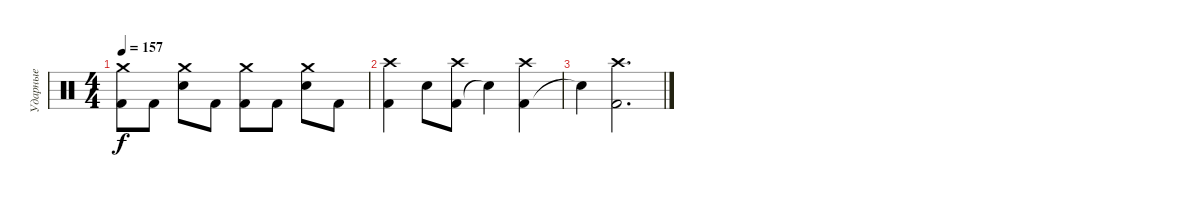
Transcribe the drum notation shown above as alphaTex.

\track ("Ударные" "Ударные") {instrument percussion}
\staff {score}
\articulation defaults
\ts (4 4)
\tempo 157
\clef neutral
\ks c
("Kick (hit) 2" "Crash medium (hit)").8{dy f} "Kick (hit) 2".8 ("Snare (hit) 2" "Crash medium (hit)").8 "Kick (hit) 2".8 ("Kick (hit) 2" "Crash medium (hit)").8 "Kick (hit) 2".8 ("Snare (hit) 2" "Crash medium (hit)").8 "Kick (hit) 2".8 |
("Kick (hit) 2" "Crash high (hit)").4 "Electric Snare (hit)".8 ("Kick (hit) 2" "Crash high (hit)").8 "Snare (hit)"{t}.4 ("Kick (hit) 2" "Crash high (hit)").4 |
"Snare (hit)"{t}.4 ("Kick (hit) 2" "Crash high (hit)").2{d}
